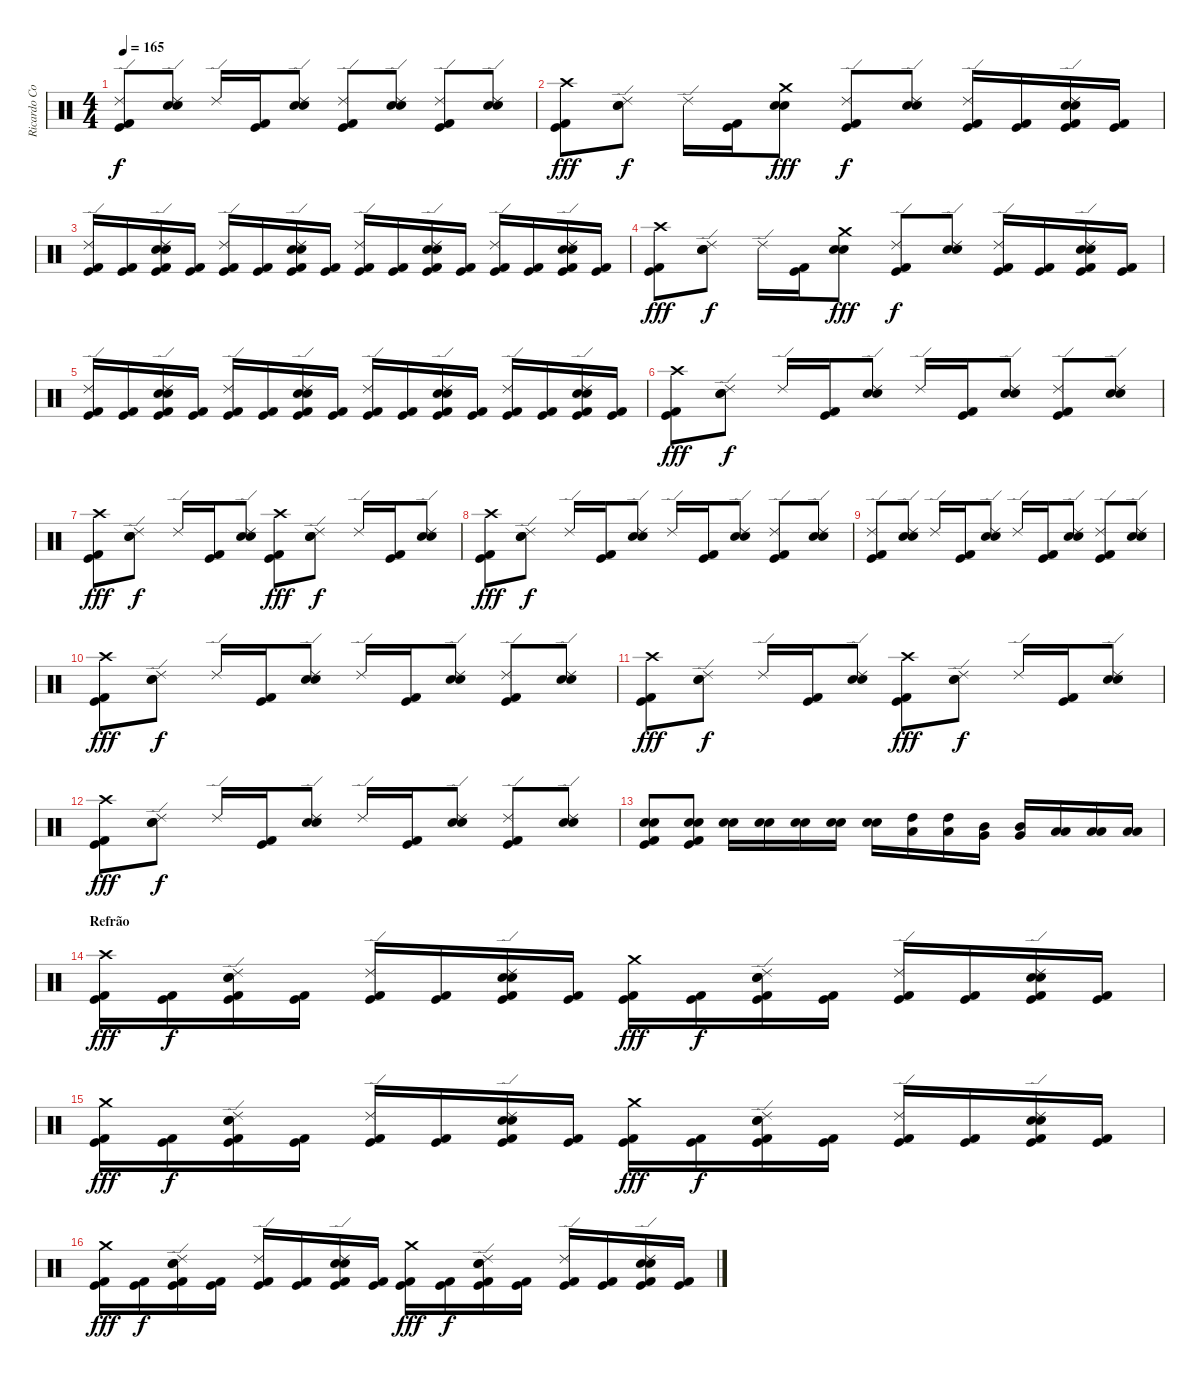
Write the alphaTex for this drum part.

\track ("Ricardo Confessori" "Ricardo Co") {instrument percussion}
\staff {score}
\articulation defaults
\ts (4 4)
\tempo 165
\clef neutral
\ks c
("Ride (edge) 2" "Kick (hit) 2" "Kick (hit)").8{dy f} ("Ride (edge) 2" "Electric Snare (hit)" "Snare (hit) 2").8 "Ride (edge) 2".16 ("Kick (hit) 2" "Kick (hit)").16 ("Ride (edge) 2" "Electric Snare (hit)" "Snare (hit) 2").8 ("Ride (edge) 2" "Kick (hit) 2" "Kick (hit)").8 ("Ride (edge) 2" "Electric Snare (hit)" "Snare (hit) 2").8 ("Ride (edge) 2" "Kick (hit) 2" "Kick (hit)").8 ("Ride (edge) 2" "Electric Snare (hit)" "Snare (hit) 2").8 |
("Crash high (hit)" "Kick (hit) 2" "Kick (hit)").8{dy fff} ("Ride (edge) 2" "Electric Snare (hit)" "Snare (hit) 2").8{dy f} "Ride (edge) 2".16 ("Kick (hit) 2" "Kick (hit)").16 ("Crash medium (hit)" "Electric Snare (hit)" "Snare (hit) 2").8{dy fff} ("Ride (edge) 2" "Kick (hit) 2" "Kick (hit)").8{dy f} ("Ride (edge) 2" "Electric Snare (hit)" "Snare (hit) 2").8 ("Ride (edge) 2" "Kick (hit) 2" "Kick (hit)").16 ("Kick (hit) 2" "Kick (hit)").16 ("Ride (edge) 2" "Electric Snare (hit)" "Snare (hit) 2" "Kick (hit) 2" "Kick (hit)").16 ("Kick (hit) 2" "Kick (hit)").16 |
("Ride (edge) 2" "Kick (hit) 2" "Kick (hit)").16 ("Kick (hit) 2" "Kick (hit)").16 ("Ride (edge) 2" "Electric Snare (hit)" "Snare (hit) 2" "Kick (hit) 2" "Kick (hit)").16 ("Kick (hit) 2" "Kick (hit)").16 ("Ride (edge) 2" "Kick (hit) 2" "Kick (hit)").16 ("Kick (hit) 2" "Kick (hit)").16 ("Ride (edge) 2" "Electric Snare (hit)" "Snare (hit) 2" "Kick (hit) 2" "Kick (hit)").16 ("Kick (hit) 2" "Kick (hit)").16 ("Ride (edge) 2" "Kick (hit) 2" "Kick (hit)").16 ("Kick (hit) 2" "Kick (hit)").16 ("Ride (edge) 2" "Electric Snare (hit)" "Snare (hit) 2" "Kick (hit) 2" "Kick (hit)").16 ("Kick (hit) 2" "Kick (hit)").16 ("Ride (edge) 2" "Kick (hit) 2" "Kick (hit)").16 ("Kick (hit) 2" "Kick (hit)").16 ("Ride (edge) 2" "Electric Snare (hit)" "Snare (hit) 2" "Kick (hit) 2" "Kick (hit)").16 ("Kick (hit) 2" "Kick (hit)").16 |
("Crash high (hit)" "Kick (hit) 2" "Kick (hit)").8{dy fff} ("Ride (edge) 2" "Electric Snare (hit)" "Snare (hit) 2").8{dy f} "Ride (edge) 2".16 ("Kick (hit) 2" "Kick (hit)").16 ("Crash medium (hit)" "Electric Snare (hit)" "Snare (hit) 2").8{dy fff} ("Ride (edge) 2" "Kick (hit) 2" "Kick (hit)").8{dy f} ("Ride (edge) 2" "Electric Snare (hit)" "Snare (hit) 2").8 ("Ride (edge) 2" "Kick (hit) 2" "Kick (hit)").16 ("Kick (hit) 2" "Kick (hit)").16 ("Ride (edge) 2" "Electric Snare (hit)" "Snare (hit) 2" "Kick (hit) 2" "Kick (hit)").16 ("Kick (hit) 2" "Kick (hit)").16 |
("Ride (edge) 2" "Kick (hit) 2" "Kick (hit)").16 ("Kick (hit) 2" "Kick (hit)").16 ("Ride (edge) 2" "Electric Snare (hit)" "Snare (hit) 2" "Kick (hit) 2" "Kick (hit)").16 ("Kick (hit) 2" "Kick (hit)").16 ("Ride (edge) 2" "Kick (hit) 2" "Kick (hit)").16 ("Kick (hit) 2" "Kick (hit)").16 ("Ride (edge) 2" "Electric Snare (hit)" "Snare (hit) 2" "Kick (hit) 2" "Kick (hit)").16 ("Kick (hit) 2" "Kick (hit)").16 ("Ride (edge) 2" "Kick (hit) 2" "Kick (hit)").16 ("Kick (hit) 2" "Kick (hit)").16 ("Ride (edge) 2" "Electric Snare (hit)" "Snare (hit) 2" "Kick (hit) 2" "Kick (hit)").16 ("Kick (hit) 2" "Kick (hit)").16 ("Ride (edge) 2" "Kick (hit) 2" "Kick (hit)").16 ("Kick (hit) 2" "Kick (hit)").16 ("Ride (edge) 2" "Electric Snare (hit)" "Snare (hit) 2" "Kick (hit) 2" "Kick (hit)").16 ("Kick (hit) 2" "Kick (hit)").16 |
("Crash high (hit)" "Kick (hit) 2" "Kick (hit)").8{dy fff} ("Ride (edge) 2" "Electric Snare (hit)" "Snare (hit) 2").8{dy f} "Ride (edge) 2".16 ("Kick (hit) 2" "Kick (hit)").16 ("Ride (edge) 2" "Electric Snare (hit)" "Snare (hit) 2").8 "Ride (edge) 2".16 ("Kick (hit) 2" "Kick (hit)").16 ("Ride (edge) 2" "Electric Snare (hit)" "Snare (hit) 2").8 ("Ride (edge) 2" "Kick (hit) 2" "Kick (hit)").8 ("Ride (edge) 2" "Electric Snare (hit)" "Snare (hit) 2").8 |
("Crash high (hit)" "Kick (hit) 2" "Kick (hit)").8{dy fff} ("Ride (edge) 2" "Electric Snare (hit)" "Snare (hit) 2").8{dy f} "Ride (edge) 2".16 ("Kick (hit) 2" "Kick (hit)").16 ("Ride (edge) 2" "Electric Snare (hit)" "Snare (hit) 2").8 ("Crash high (hit)" "Kick (hit) 2" "Kick (hit)").8{dy fff} ("Ride (edge) 2" "Electric Snare (hit)" "Snare (hit) 2").8{dy f} "Ride (edge) 2".16 ("Kick (hit) 2" "Kick (hit)").16 ("Ride (edge) 2" "Electric Snare (hit)" "Snare (hit) 2").8 |
("Crash high (hit)" "Kick (hit) 2" "Kick (hit)").8{dy fff} ("Ride (edge) 2" "Electric Snare (hit)" "Snare (hit) 2").8{dy f} "Ride (edge) 2".16 ("Kick (hit) 2" "Kick (hit)").16 ("Ride (edge) 2" "Electric Snare (hit)" "Snare (hit) 2").8 "Ride (edge) 2".16 ("Kick (hit) 2" "Kick (hit)").16 ("Ride (edge) 2" "Electric Snare (hit)" "Snare (hit) 2").8 ("Ride (edge) 2" "Kick (hit) 2" "Kick (hit)").8 ("Ride (edge) 2" "Electric Snare (hit)" "Snare (hit) 2").8 |
("Ride (edge) 2" "Kick (hit) 2" "Kick (hit)").8 ("Ride (edge) 2" "Electric Snare (hit)" "Snare (hit) 2").8 "Ride (edge) 2".16 ("Kick (hit) 2" "Kick (hit)").16 ("Ride (edge) 2" "Electric Snare (hit)" "Snare (hit) 2").8 "Ride (edge) 2".16 ("Kick (hit) 2" "Kick (hit)").16 ("Ride (edge) 2" "Electric Snare (hit)" "Snare (hit) 2").8 ("Ride (edge) 2" "Kick (hit) 2" "Kick (hit)").8 ("Ride (edge) 2" "Electric Snare (hit)" "Snare (hit) 2").8 |
("Crash high (hit)" "Kick (hit) 2" "Kick (hit)").8{dy fff} ("Ride (edge) 2" "Electric Snare (hit)" "Snare (hit) 2").8{dy f} "Ride (edge) 2".16 ("Kick (hit) 2" "Kick (hit)").16 ("Ride (edge) 2" "Electric Snare (hit)" "Snare (hit) 2").8 "Ride (edge) 2".16 ("Kick (hit) 2" "Kick (hit)").16 ("Ride (edge) 2" "Electric Snare (hit)" "Snare (hit) 2").8 ("Ride (edge) 2" "Kick (hit) 2" "Kick (hit)").8 ("Ride (edge) 2" "Electric Snare (hit)" "Snare (hit) 2").8 |
("Crash high (hit)" "Kick (hit) 2" "Kick (hit)").8{dy fff} ("Ride (edge) 2" "Electric Snare (hit)" "Snare (hit) 2").8{dy f} "Ride (edge) 2".16 ("Kick (hit) 2" "Kick (hit)").16 ("Ride (edge) 2" "Electric Snare (hit)" "Snare (hit) 2").8 ("Crash high (hit)" "Kick (hit) 2" "Kick (hit)").8{dy fff} ("Ride (edge) 2" "Electric Snare (hit)" "Snare (hit) 2").8{dy f} "Ride (edge) 2".16 ("Kick (hit) 2" "Kick (hit)").16 ("Ride (edge) 2" "Electric Snare (hit)" "Snare (hit) 2").8 |
("Crash high (hit)" "Kick (hit) 2" "Kick (hit)").8{dy fff} ("Ride (edge) 2" "Electric Snare (hit)" "Snare (hit) 2").8{dy f} "Ride (edge) 2".16 ("Kick (hit) 2" "Kick (hit)").16 ("Ride (edge) 2" "Electric Snare (hit)" "Snare (hit) 2").8 "Ride (edge) 2".16 ("Kick (hit) 2" "Kick (hit)").16 ("Ride (edge) 2" "Electric Snare (hit)" "Snare (hit) 2").8 ("Ride (edge) 2" "Kick (hit) 2" "Kick (hit)").8 ("Ride (edge) 2" "Electric Snare (hit)" "Snare (hit) 2").8 |
("Electric Snare (hit)" "Snare (hit) 2" "Kick (hit) 2" "Kick (hit)").8 ("Electric Snare (hit)" "Snare (hit) 2" "Kick (hit) 2" "Kick (hit)").8 ("Electric Snare (hit)" "Snare (hit) 2").16 ("Electric Snare (hit)" "Snare (hit) 2").16 ("Electric Snare (hit)" "Snare (hit) 2").16 ("Electric Snare (hit)" "Snare (hit) 2").16 ("Electric Snare (hit)" "Snare (hit) 2").16 ("High Tom (hit)" "Low Tom (hit)").16 ("High Tom (hit)" "Low Tom (hit)").16 ("Mid Tom (hit)" "Very Low Tom (hit)").16 ("Mid Tom (hit)" "Very Low Tom (hit)").16 ("Low Tom (hit)" "Low Floor Tom (hit)").16 ("Low Tom (hit)" "Low Floor Tom (hit)").16 ("Low Tom (hit)" "Low Floor Tom (hit)").16 |
\section ("" "Refrão")
("Crash high (hit)" "Kick (hit) 2" "Kick (hit)").16{dy fff} ("Kick (hit) 2" "Kick (hit)").16{dy f} ("Ride (edge) 2" "Electric Snare (hit)" "Snare (hit) 2" "Kick (hit) 2" "Kick (hit)").16 ("Kick (hit) 2" "Kick (hit)").16 ("Ride (edge) 2" "Kick (hit) 2" "Kick (hit)").16 ("Kick (hit) 2" "Kick (hit)").16 ("Ride (edge) 2" "Electric Snare (hit)" "Snare (hit) 2" "Kick (hit) 2" "Kick (hit)").16 ("Kick (hit) 2" "Kick (hit)").16 ("Crash medium (hit)" "Kick (hit) 2" "Kick (hit)").16{dy fff} ("Kick (hit) 2" "Kick (hit)").16{dy f} ("Ride (edge) 2" "Electric Snare (hit)" "Snare (hit) 2" "Kick (hit) 2" "Kick (hit)").16 ("Kick (hit) 2" "Kick (hit)").16 ("Ride (edge) 2" "Kick (hit) 2" "Kick (hit)").16 ("Kick (hit) 2" "Kick (hit)").16 ("Ride (edge) 2" "Electric Snare (hit)" "Snare (hit) 2" "Kick (hit) 2" "Kick (hit)").16 ("Kick (hit) 2" "Kick (hit)").16 |
("Crash medium (hit)" "Kick (hit) 2" "Kick (hit)").16{dy fff} ("Kick (hit) 2" "Kick (hit)").16{dy f} ("Ride (edge) 2" "Electric Snare (hit)" "Snare (hit) 2" "Kick (hit) 2" "Kick (hit)").16 ("Kick (hit) 2" "Kick (hit)").16 ("Ride (edge) 2" "Kick (hit) 2" "Kick (hit)").16 ("Kick (hit) 2" "Kick (hit)").16 ("Ride (edge) 2" "Electric Snare (hit)" "Snare (hit) 2" "Kick (hit) 2" "Kick (hit)").16 ("Kick (hit) 2" "Kick (hit)").16 ("Crash medium (hit)" "Kick (hit) 2" "Kick (hit)").16{dy fff} ("Kick (hit) 2" "Kick (hit)").16{dy f} ("Ride (edge) 2" "Electric Snare (hit)" "Snare (hit) 2" "Kick (hit) 2" "Kick (hit)").16 ("Kick (hit) 2" "Kick (hit)").16 ("Ride (edge) 2" "Kick (hit) 2" "Kick (hit)").16 ("Kick (hit) 2" "Kick (hit)").16 ("Ride (edge) 2" "Electric Snare (hit)" "Snare (hit) 2" "Kick (hit) 2" "Kick (hit)").16 ("Kick (hit) 2" "Kick (hit)").16 |
("Crash medium (hit)" "Kick (hit) 2" "Kick (hit)").16{dy fff} ("Kick (hit) 2" "Kick (hit)").16{dy f} ("Ride (edge) 2" "Electric Snare (hit)" "Snare (hit) 2" "Kick (hit) 2" "Kick (hit)").16 ("Kick (hit) 2" "Kick (hit)").16 ("Ride (edge) 2" "Kick (hit) 2" "Kick (hit)").16 ("Kick (hit) 2" "Kick (hit)").16 ("Ride (edge) 2" "Electric Snare (hit)" "Snare (hit) 2" "Kick (hit) 2" "Kick (hit)").16 ("Kick (hit) 2" "Kick (hit)").16 ("Crash medium (hit)" "Kick (hit) 2" "Kick (hit)").16{dy fff} ("Kick (hit) 2" "Kick (hit)").16{dy f} ("Ride (edge) 2" "Electric Snare (hit)" "Snare (hit) 2" "Kick (hit) 2" "Kick (hit)").16 ("Kick (hit) 2" "Kick (hit)").16 ("Ride (edge) 2" "Kick (hit) 2" "Kick (hit)").16 ("Kick (hit) 2" "Kick (hit)").16 ("Ride (edge) 2" "Electric Snare (hit)" "Snare (hit) 2" "Kick (hit) 2" "Kick (hit)").16 ("Kick (hit) 2" "Kick (hit)").16
